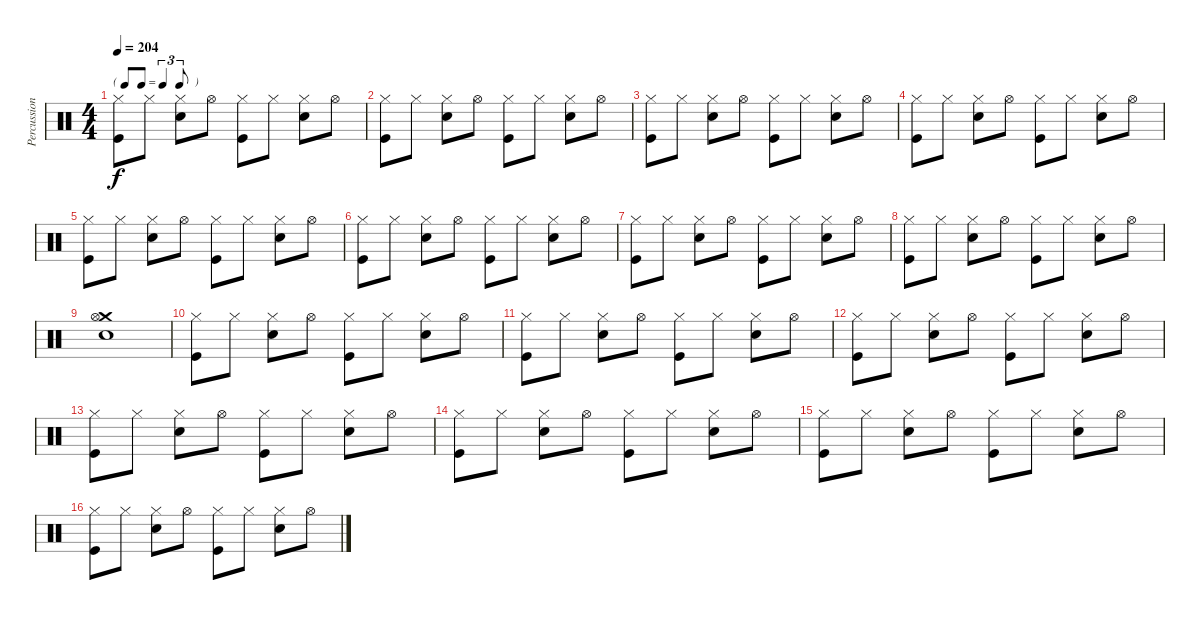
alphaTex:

\track ("Percussions" "Percussion") {instrument percussion}
\staff {score}
\articulation defaults
\ts (4 4)
\tf triplet8th
\tempo 204
\clef neutral
\ks c
("Hi-Hat (closed)" "Kick (hit)").8{dy f} "Hi-Hat (closed)".8 ("Hi-Hat (closed)" "Snare (hit) 2").8 "Hi-Hat (open)".8 ("Hi-Hat (closed)" "Kick (hit)").8 "Hi-Hat (closed)".8 ("Hi-Hat (closed)" "Snare (hit) 2").8 "Hi-Hat (open)".8 |
("Hi-Hat (closed)" "Kick (hit)").8 "Hi-Hat (closed)".8 ("Hi-Hat (closed)" "Snare (hit) 2").8 "Hi-Hat (open)".8 ("Hi-Hat (closed)" "Kick (hit)").8 "Hi-Hat (closed)".8 ("Hi-Hat (closed)" "Snare (hit) 2").8 "Hi-Hat (open)".8 |
("Hi-Hat (closed)" "Kick (hit)").8 "Hi-Hat (closed)".8 ("Hi-Hat (closed)" "Snare (hit) 2").8 "Hi-Hat (open)".8 ("Hi-Hat (closed)" "Kick (hit)").8 "Hi-Hat (closed)".8 ("Hi-Hat (closed)" "Snare (hit) 2").8 "Hi-Hat (open)".8 |
("Hi-Hat (closed)" "Kick (hit)").8 "Hi-Hat (closed)".8 ("Hi-Hat (closed)" "Snare (hit) 2").8 "Hi-Hat (open)".8 ("Hi-Hat (closed)" "Kick (hit)").8 "Hi-Hat (closed)".8 ("Hi-Hat (closed)" "Snare (hit) 2").8 "Hi-Hat (open)".8 |
("Hi-Hat (closed)" "Kick (hit)").8 "Hi-Hat (closed)".8 ("Hi-Hat (closed)" "Snare (hit) 2").8 "Hi-Hat (open)".8 ("Hi-Hat (closed)" "Kick (hit)").8 "Hi-Hat (closed)".8 ("Hi-Hat (closed)" "Snare (hit) 2").8 "Hi-Hat (open)".8 |
("Hi-Hat (closed)" "Kick (hit)").8 "Hi-Hat (closed)".8 ("Hi-Hat (closed)" "Snare (hit) 2").8 "Hi-Hat (open)".8 ("Hi-Hat (closed)" "Kick (hit)").8 "Hi-Hat (closed)".8 ("Hi-Hat (closed)" "Snare (hit) 2").8 "Hi-Hat (open)".8 |
("Hi-Hat (closed)" "Kick (hit)").8 "Hi-Hat (closed)".8 ("Hi-Hat (closed)" "Snare (hit) 2").8 "Hi-Hat (open)".8 ("Hi-Hat (closed)" "Kick (hit)").8 "Hi-Hat (closed)".8 ("Hi-Hat (closed)" "Snare (hit) 2").8 "Hi-Hat (open)".8 |
("Hi-Hat (closed)" "Kick (hit)").8 "Hi-Hat (closed)".8 ("Hi-Hat (closed)" "Snare (hit) 2").8 "Hi-Hat (open)".8 ("Hi-Hat (closed)" "Kick (hit)").8 "Hi-Hat (closed)".8 ("Hi-Hat (closed)" "Snare (hit) 2").8 "Hi-Hat (open)".8 |
("Crash medium (hit)" "Hi-Hat (open)" "Snare (hit) 2").1 |
("Hi-Hat (closed)" "Kick (hit)").8 "Hi-Hat (closed)".8 ("Hi-Hat (closed)" "Snare (hit) 2").8 "Hi-Hat (open)".8 ("Hi-Hat (closed)" "Kick (hit)").8 "Hi-Hat (closed)".8 ("Hi-Hat (closed)" "Snare (hit) 2").8 "Hi-Hat (open)".8 |
("Hi-Hat (closed)" "Kick (hit)").8 "Hi-Hat (closed)".8 ("Hi-Hat (closed)" "Snare (hit) 2").8 "Hi-Hat (open)".8 ("Hi-Hat (closed)" "Kick (hit)").8 "Hi-Hat (closed)".8 ("Hi-Hat (closed)" "Snare (hit) 2").8 "Hi-Hat (open)".8 |
("Hi-Hat (closed)" "Kick (hit)").8 "Hi-Hat (closed)".8 ("Hi-Hat (closed)" "Snare (hit) 2").8 "Hi-Hat (open)".8 ("Hi-Hat (closed)" "Kick (hit)").8 "Hi-Hat (closed)".8 ("Hi-Hat (closed)" "Snare (hit) 2").8 "Hi-Hat (open)".8 |
("Hi-Hat (closed)" "Kick (hit)").8 "Hi-Hat (closed)".8 ("Hi-Hat (closed)" "Snare (hit) 2").8 "Hi-Hat (open)".8 ("Hi-Hat (closed)" "Kick (hit)").8 "Hi-Hat (closed)".8 ("Hi-Hat (closed)" "Snare (hit) 2").8 "Hi-Hat (open)".8 |
("Hi-Hat (closed)" "Kick (hit)").8 "Hi-Hat (closed)".8 ("Hi-Hat (closed)" "Snare (hit) 2").8 "Hi-Hat (open)".8 ("Hi-Hat (closed)" "Kick (hit)").8 "Hi-Hat (closed)".8 ("Hi-Hat (closed)" "Snare (hit) 2").8 "Hi-Hat (open)".8 |
("Hi-Hat (closed)" "Kick (hit)").8 "Hi-Hat (closed)".8 ("Hi-Hat (closed)" "Snare (hit) 2").8 "Hi-Hat (open)".8 ("Hi-Hat (closed)" "Kick (hit)").8 "Hi-Hat (closed)".8 ("Hi-Hat (closed)" "Snare (hit) 2").8 "Hi-Hat (open)".8 |
("Hi-Hat (closed)" "Kick (hit)").8 "Hi-Hat (closed)".8 ("Hi-Hat (closed)" "Snare (hit) 2").8 "Hi-Hat (open)".8 ("Hi-Hat (closed)" "Kick (hit)").8 "Hi-Hat (closed)".8 ("Hi-Hat (closed)" "Snare (hit) 2").8 "Hi-Hat (open)".8
